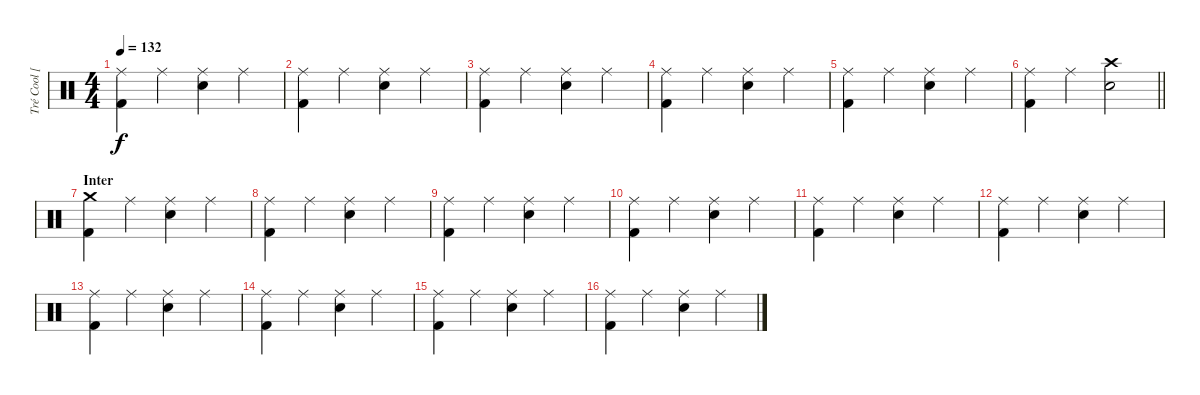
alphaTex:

\track ("Tré Cool [Drums]" "Tré Cool [") {instrument percussion}
\staff {score}
\articulation defaults
\ts (4 4)
\tempo 132
\clef neutral
\ks c
("Ride (middle)" "Kick (hit) 2").4{dy f} "Ride (middle)".4 ("Ride (middle)" "Electric Snare (hit)").4 "Ride (middle)".4 |
("Ride (middle)" "Kick (hit) 2").4 "Ride (middle)".4 ("Ride (middle)" "Electric Snare (hit)").4 "Ride (middle)".4 |
("Ride (middle)" "Kick (hit) 2").4 "Ride (middle)".4 ("Ride (middle)" "Electric Snare (hit)").4 "Ride (middle)".4 |
("Ride (middle)" "Kick (hit) 2").4 "Ride (middle)".4 ("Ride (middle)" "Electric Snare (hit)").4 "Ride (middle)".4 |
("Ride (middle)" "Kick (hit) 2").4 "Ride (middle)".4 ("Ride (middle)" "Electric Snare (hit)").4 "Ride (middle)".4 |
\barLineRight lightlight
("Ride (middle)" "Kick (hit) 2").4 "Ride (middle)".4 ("Crash high (hit)" "Electric Snare (hit)").2 |
\section ("" "Inter")
("Crash medium (hit)" "Kick (hit) 2").4 "Ride (middle)".4 ("Ride (middle)" "Electric Snare (hit)").4 "Ride (middle)".4 |
("Ride (middle)" "Kick (hit) 2").4 "Ride (middle)".4 ("Ride (middle)" "Electric Snare (hit)").4 "Ride (middle)".4 |
("Ride (middle)" "Kick (hit) 2").4 "Ride (middle)".4 ("Ride (middle)" "Electric Snare (hit)").4 "Ride (middle)".4 |
("Ride (middle)" "Kick (hit) 2").4 "Ride (middle)".4 ("Ride (middle)" "Electric Snare (hit)").4 "Ride (middle)".4 |
("Ride (middle)" "Kick (hit) 2").4 "Ride (middle)".4 ("Ride (middle)" "Electric Snare (hit)").4 "Ride (middle)".4 |
("Ride (middle)" "Kick (hit) 2").4 "Ride (middle)".4 ("Ride (middle)" "Electric Snare (hit)").4 "Ride (middle)".4 |
("Ride (middle)" "Kick (hit) 2").4 "Ride (middle)".4 ("Ride (middle)" "Electric Snare (hit)").4 "Ride (middle)".4 |
("Ride (middle)" "Kick (hit) 2").4 "Ride (middle)".4 ("Ride (middle)" "Electric Snare (hit)").4 "Ride (middle)".4 |
("Ride (middle)" "Kick (hit) 2").4 "Ride (middle)".4 ("Ride (middle)" "Electric Snare (hit)").4 "Ride (middle)".4 |
("Ride (middle)" "Kick (hit) 2").4 "Ride (middle)".4 ("Ride (middle)" "Electric Snare (hit)").4 "Ride (middle)".4
